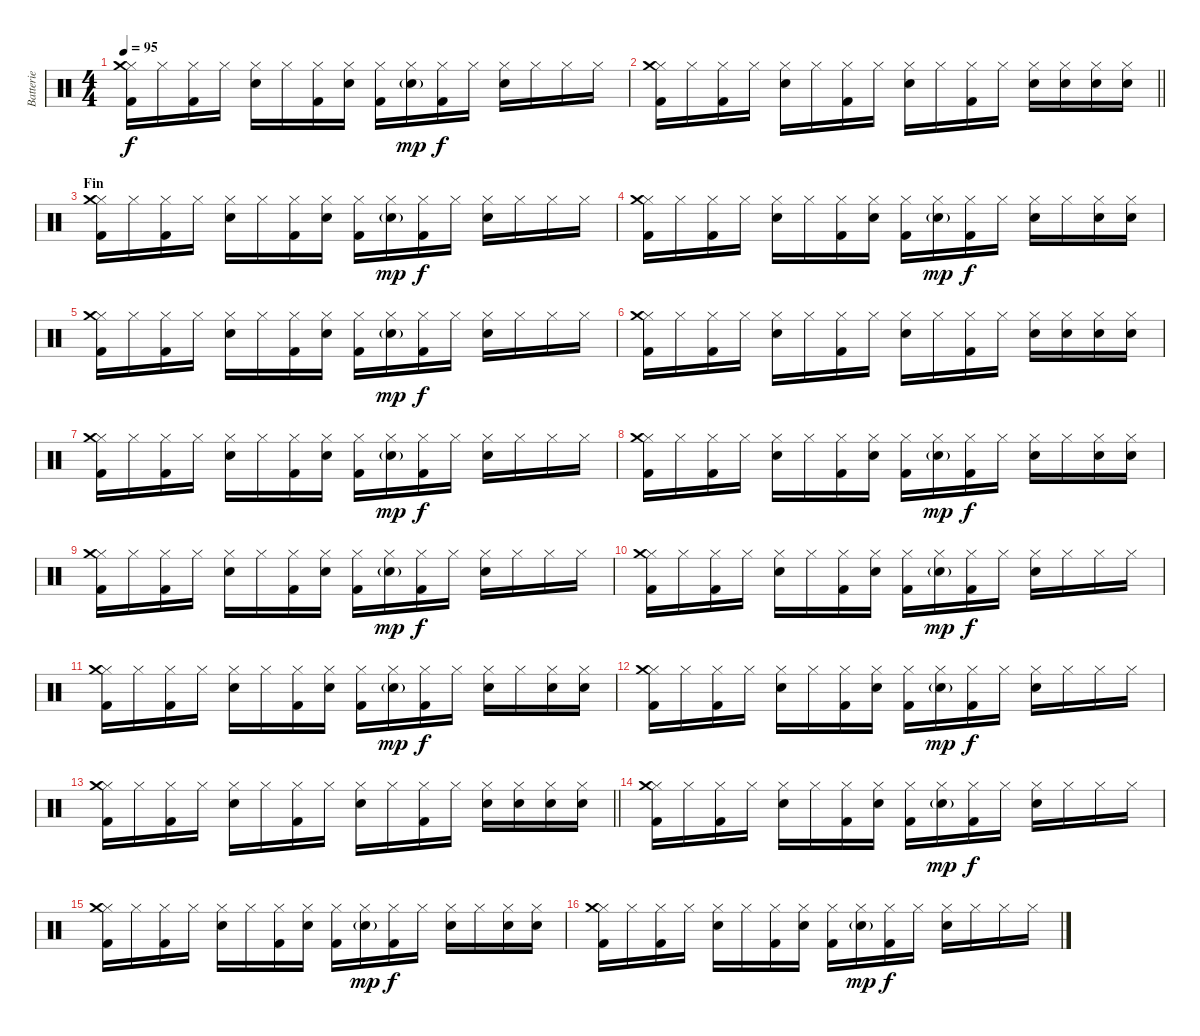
\track ("Batterie" "Batterie") {instrument percussion}
\staff {score}
\articulation defaults
\ts (4 4)
\tempo 95
\clef neutral
\ks c
("Hi-Hat (closed)" "Crash medium (hit)" "Kick (hit) 2").16{dy f} "Hi-Hat (closed)".16 ("Hi-Hat (closed)" "Kick (hit) 2").16 "Hi-Hat (closed)".16 ("Hi-Hat (closed)" "Electric Snare (hit)").16 "Hi-Hat (closed)".16 ("Hi-Hat (closed)" "Kick (hit) 2").16 ("Hi-Hat (closed)" "Electric Snare (hit)").16 ("Hi-Hat (closed)" "Kick (hit) 2").16 ("Hi-Hat (closed)" "Electric Snare (hit)"{g}).16{dy mp} ("Hi-Hat (closed)" "Kick (hit) 2").16{dy f} "Hi-Hat (closed)".16 ("Hi-Hat (closed)" "Electric Snare (hit)").16 "Hi-Hat (closed)".16 "Hi-Hat (closed)".16 "Hi-Hat (closed)".16 |
\barLineRight lightlight
("Hi-Hat (closed)" "Crash medium (hit)" "Kick (hit) 2").16 "Hi-Hat (closed)".16 ("Hi-Hat (closed)" "Kick (hit) 2").16 "Hi-Hat (closed)".16 ("Hi-Hat (closed)" "Electric Snare (hit)").16 "Hi-Hat (closed)".16 ("Hi-Hat (closed)" "Kick (hit) 2").16 "Hi-Hat (closed)".16 ("Hi-Hat (closed)" "Electric Snare (hit)").16 "Hi-Hat (closed)".16 ("Hi-Hat (closed)" "Kick (hit) 2").16 "Hi-Hat (closed)".16 ("Hi-Hat (closed)" "Electric Snare (hit)").16 ("Hi-Hat (closed)" "Electric Snare (hit)").16 ("Hi-Hat (closed)" "Electric Snare (hit)").16 ("Hi-Hat (closed)" "Electric Snare (hit)").16 |
\section ("" "Fin")
("Hi-Hat (closed)" "Crash medium (hit)" "Kick (hit) 2").16 "Hi-Hat (closed)".16 ("Hi-Hat (closed)" "Kick (hit) 2").16 "Hi-Hat (closed)".16 ("Hi-Hat (closed)" "Electric Snare (hit)").16 "Hi-Hat (closed)".16 ("Hi-Hat (closed)" "Kick (hit) 2").16 ("Hi-Hat (closed)" "Electric Snare (hit)").16 ("Hi-Hat (closed)" "Kick (hit) 2").16 ("Hi-Hat (closed)" "Electric Snare (hit)"{g}).16{dy mp} ("Hi-Hat (closed)" "Kick (hit) 2").16{dy f} "Hi-Hat (closed)".16 ("Hi-Hat (closed)" "Electric Snare (hit)").16 "Hi-Hat (closed)".16 "Hi-Hat (closed)".16 "Hi-Hat (closed)".16 |
("Hi-Hat (closed)" "Crash medium (hit)" "Kick (hit) 2").16 "Hi-Hat (closed)".16 ("Hi-Hat (closed)" "Kick (hit) 2").16 "Hi-Hat (closed)".16 ("Hi-Hat (closed)" "Electric Snare (hit)").16 "Hi-Hat (closed)".16 ("Hi-Hat (closed)" "Kick (hit) 2").16 ("Hi-Hat (closed)" "Electric Snare (hit)").16 ("Hi-Hat (closed)" "Kick (hit) 2").16 ("Hi-Hat (closed)" "Electric Snare (hit)"{g}).16{dy mp} ("Hi-Hat (closed)" "Kick (hit) 2").16{dy f} "Hi-Hat (closed)".16 ("Hi-Hat (closed)" "Electric Snare (hit)").16 "Hi-Hat (closed)".16 ("Hi-Hat (closed)" "Electric Snare (hit)").16 ("Hi-Hat (closed)" "Electric Snare (hit)").16 |
("Hi-Hat (closed)" "Crash medium (hit)" "Kick (hit) 2").16 "Hi-Hat (closed)".16 ("Hi-Hat (closed)" "Kick (hit) 2").16 "Hi-Hat (closed)".16 ("Hi-Hat (closed)" "Electric Snare (hit)").16 "Hi-Hat (closed)".16 ("Hi-Hat (closed)" "Kick (hit) 2").16 ("Hi-Hat (closed)" "Electric Snare (hit)").16 ("Hi-Hat (closed)" "Kick (hit) 2").16 ("Hi-Hat (closed)" "Electric Snare (hit)"{g}).16{dy mp} ("Hi-Hat (closed)" "Kick (hit) 2").16{dy f} "Hi-Hat (closed)".16 ("Hi-Hat (closed)" "Electric Snare (hit)").16 "Hi-Hat (closed)".16 "Hi-Hat (closed)".16 "Hi-Hat (closed)".16 |
("Hi-Hat (closed)" "Crash medium (hit)" "Kick (hit) 2").16 "Hi-Hat (closed)".16 ("Hi-Hat (closed)" "Kick (hit) 2").16 "Hi-Hat (closed)".16 ("Hi-Hat (closed)" "Electric Snare (hit)").16 "Hi-Hat (closed)".16 ("Hi-Hat (closed)" "Kick (hit) 2").16 "Hi-Hat (closed)".16 ("Hi-Hat (closed)" "Electric Snare (hit)").16 "Hi-Hat (closed)".16 ("Hi-Hat (closed)" "Kick (hit) 2").16 "Hi-Hat (closed)".16 ("Hi-Hat (closed)" "Electric Snare (hit)").16 ("Hi-Hat (closed)" "Electric Snare (hit)").16 ("Hi-Hat (closed)" "Electric Snare (hit)").16 ("Hi-Hat (closed)" "Electric Snare (hit)").16 |
("Hi-Hat (closed)" "Crash medium (hit)" "Kick (hit) 2").16 "Hi-Hat (closed)".16 ("Hi-Hat (closed)" "Kick (hit) 2").16 "Hi-Hat (closed)".16 ("Hi-Hat (closed)" "Electric Snare (hit)").16 "Hi-Hat (closed)".16 ("Hi-Hat (closed)" "Kick (hit) 2").16 ("Hi-Hat (closed)" "Electric Snare (hit)").16 ("Hi-Hat (closed)" "Kick (hit) 2").16 ("Hi-Hat (closed)" "Electric Snare (hit)"{g}).16{dy mp} ("Hi-Hat (closed)" "Kick (hit) 2").16{dy f} "Hi-Hat (closed)".16 ("Hi-Hat (closed)" "Electric Snare (hit)").16 "Hi-Hat (closed)".16 "Hi-Hat (closed)".16 "Hi-Hat (closed)".16 |
("Hi-Hat (closed)" "Crash medium (hit)" "Kick (hit) 2").16 "Hi-Hat (closed)".16 ("Hi-Hat (closed)" "Kick (hit) 2").16 "Hi-Hat (closed)".16 ("Hi-Hat (closed)" "Electric Snare (hit)").16 "Hi-Hat (closed)".16 ("Hi-Hat (closed)" "Kick (hit) 2").16 ("Hi-Hat (closed)" "Electric Snare (hit)").16 ("Hi-Hat (closed)" "Kick (hit) 2").16 ("Hi-Hat (closed)" "Electric Snare (hit)"{g}).16{dy mp} ("Hi-Hat (closed)" "Kick (hit) 2").16{dy f} "Hi-Hat (closed)".16 ("Hi-Hat (closed)" "Electric Snare (hit)").16 "Hi-Hat (closed)".16 ("Hi-Hat (closed)" "Electric Snare (hit)").16 ("Hi-Hat (closed)" "Electric Snare (hit)").16 |
("Hi-Hat (closed)" "Crash medium (hit)" "Kick (hit) 2").16 "Hi-Hat (closed)".16 ("Hi-Hat (closed)" "Kick (hit) 2").16 "Hi-Hat (closed)".16 ("Hi-Hat (closed)" "Electric Snare (hit)").16 "Hi-Hat (closed)".16 ("Hi-Hat (closed)" "Kick (hit) 2").16 ("Hi-Hat (closed)" "Electric Snare (hit)").16 ("Hi-Hat (closed)" "Kick (hit) 2").16 ("Hi-Hat (closed)" "Electric Snare (hit)"{g}).16{dy mp} ("Hi-Hat (closed)" "Kick (hit) 2").16{dy f} "Hi-Hat (closed)".16 ("Hi-Hat (closed)" "Electric Snare (hit)").16 "Hi-Hat (closed)".16 "Hi-Hat (closed)".16 "Hi-Hat (closed)".16 |
("Hi-Hat (closed)" "Crash medium (hit)" "Kick (hit) 2").16 "Hi-Hat (closed)".16 ("Hi-Hat (closed)" "Kick (hit) 2").16 "Hi-Hat (closed)".16 ("Hi-Hat (closed)" "Electric Snare (hit)").16 "Hi-Hat (closed)".16 ("Hi-Hat (closed)" "Kick (hit) 2").16 ("Hi-Hat (closed)" "Electric Snare (hit)").16 ("Hi-Hat (closed)" "Kick (hit) 2").16 ("Hi-Hat (closed)" "Electric Snare (hit)"{g}).16{dy mp} ("Hi-Hat (closed)" "Kick (hit) 2").16{dy f} "Hi-Hat (closed)".16 ("Hi-Hat (closed)" "Electric Snare (hit)").16 "Hi-Hat (closed)".16 "Hi-Hat (closed)".16 "Hi-Hat (closed)".16 |
("Hi-Hat (closed)" "Crash medium (hit)" "Kick (hit) 2").16 "Hi-Hat (closed)".16 ("Hi-Hat (closed)" "Kick (hit) 2").16 "Hi-Hat (closed)".16 ("Hi-Hat (closed)" "Electric Snare (hit)").16 "Hi-Hat (closed)".16 ("Hi-Hat (closed)" "Kick (hit) 2").16 ("Hi-Hat (closed)" "Electric Snare (hit)").16 ("Hi-Hat (closed)" "Kick (hit) 2").16 ("Hi-Hat (closed)" "Electric Snare (hit)"{g}).16{dy mp} ("Hi-Hat (closed)" "Kick (hit) 2").16{dy f} "Hi-Hat (closed)".16 ("Hi-Hat (closed)" "Electric Snare (hit)").16 "Hi-Hat (closed)".16 ("Hi-Hat (closed)" "Electric Snare (hit)").16 ("Hi-Hat (closed)" "Electric Snare (hit)").16 |
("Hi-Hat (closed)" "Crash medium (hit)" "Kick (hit) 2").16 "Hi-Hat (closed)".16 ("Hi-Hat (closed)" "Kick (hit) 2").16 "Hi-Hat (closed)".16 ("Hi-Hat (closed)" "Electric Snare (hit)").16 "Hi-Hat (closed)".16 ("Hi-Hat (closed)" "Kick (hit) 2").16 ("Hi-Hat (closed)" "Electric Snare (hit)").16 ("Hi-Hat (closed)" "Kick (hit) 2").16 ("Hi-Hat (closed)" "Electric Snare (hit)"{g}).16{dy mp} ("Hi-Hat (closed)" "Kick (hit) 2").16{dy f} "Hi-Hat (closed)".16 ("Hi-Hat (closed)" "Electric Snare (hit)").16 "Hi-Hat (closed)".16 "Hi-Hat (closed)".16 "Hi-Hat (closed)".16 |
\barLineRight lightlight
("Hi-Hat (closed)" "Crash medium (hit)" "Kick (hit) 2").16 "Hi-Hat (closed)".16 ("Hi-Hat (closed)" "Kick (hit) 2").16 "Hi-Hat (closed)".16 ("Hi-Hat (closed)" "Electric Snare (hit)").16 "Hi-Hat (closed)".16 ("Hi-Hat (closed)" "Kick (hit) 2").16 "Hi-Hat (closed)".16 ("Hi-Hat (closed)" "Electric Snare (hit)").16 "Hi-Hat (closed)".16 ("Hi-Hat (closed)" "Kick (hit) 2").16 "Hi-Hat (closed)".16 ("Hi-Hat (closed)" "Electric Snare (hit)").16 ("Hi-Hat (closed)" "Electric Snare (hit)").16 ("Hi-Hat (closed)" "Electric Snare (hit)").16 ("Hi-Hat (closed)" "Electric Snare (hit)").16 |
("Hi-Hat (closed)" "Crash medium (hit)" "Kick (hit) 2").16 "Hi-Hat (closed)".16 ("Hi-Hat (closed)" "Kick (hit) 2").16 "Hi-Hat (closed)".16 ("Hi-Hat (closed)" "Electric Snare (hit)").16 "Hi-Hat (closed)".16 ("Hi-Hat (closed)" "Kick (hit) 2").16 ("Hi-Hat (closed)" "Electric Snare (hit)").16 ("Hi-Hat (closed)" "Kick (hit) 2").16 ("Hi-Hat (closed)" "Electric Snare (hit)"{g}).16{dy mp} ("Hi-Hat (closed)" "Kick (hit) 2").16{dy f} "Hi-Hat (closed)".16 ("Hi-Hat (closed)" "Electric Snare (hit)").16 "Hi-Hat (closed)".16 "Hi-Hat (closed)".16 "Hi-Hat (closed)".16 |
("Hi-Hat (closed)" "Crash medium (hit)" "Kick (hit) 2").16 "Hi-Hat (closed)".16 ("Hi-Hat (closed)" "Kick (hit) 2").16 "Hi-Hat (closed)".16 ("Hi-Hat (closed)" "Electric Snare (hit)").16 "Hi-Hat (closed)".16 ("Hi-Hat (closed)" "Kick (hit) 2").16 ("Hi-Hat (closed)" "Electric Snare (hit)").16 ("Hi-Hat (closed)" "Kick (hit) 2").16 ("Hi-Hat (closed)" "Electric Snare (hit)"{g}).16{dy mp} ("Hi-Hat (closed)" "Kick (hit) 2").16{dy f} "Hi-Hat (closed)".16 ("Hi-Hat (closed)" "Electric Snare (hit)").16 "Hi-Hat (closed)".16 ("Hi-Hat (closed)" "Electric Snare (hit)").16 ("Hi-Hat (closed)" "Electric Snare (hit)").16 |
("Hi-Hat (closed)" "Crash medium (hit)" "Kick (hit) 2").16 "Hi-Hat (closed)".16 ("Hi-Hat (closed)" "Kick (hit) 2").16 "Hi-Hat (closed)".16 ("Hi-Hat (closed)" "Electric Snare (hit)").16 "Hi-Hat (closed)".16 ("Hi-Hat (closed)" "Kick (hit) 2").16 ("Hi-Hat (closed)" "Electric Snare (hit)").16 ("Hi-Hat (closed)" "Kick (hit) 2").16 ("Hi-Hat (closed)" "Electric Snare (hit)"{g}).16{dy mp} ("Hi-Hat (closed)" "Kick (hit) 2").16{dy f} "Hi-Hat (closed)".16 ("Hi-Hat (closed)" "Electric Snare (hit)").16 "Hi-Hat (closed)".16 "Hi-Hat (closed)".16 "Hi-Hat (closed)".16
